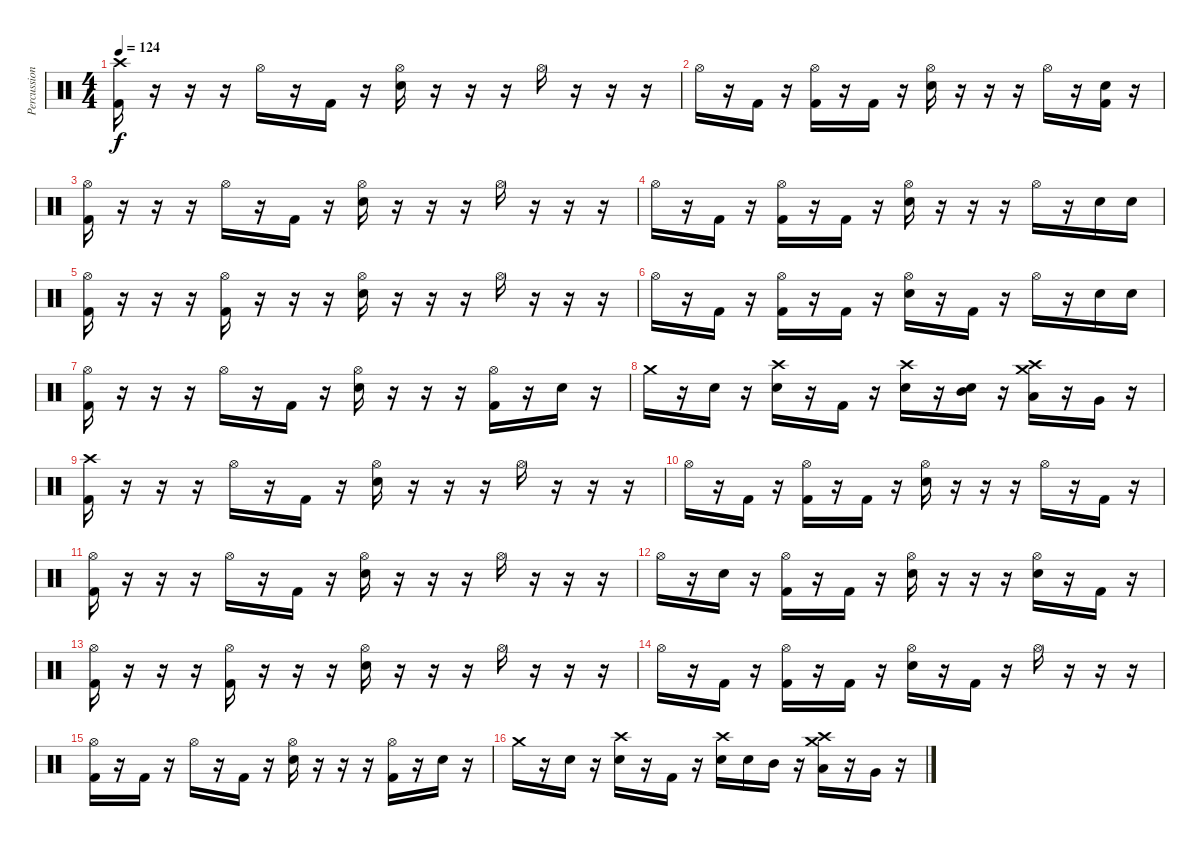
\track ("Percussion" "Percussion") {instrument percussion}
\staff {score}
\articulation defaults
\ts (4 4)
\tempo 124
\clef neutral
\ks c
("Kick (hit) 2" "Crash high (hit)").16{dy f} r.16 r.16 r.16 "Hi-Hat (open)".16 r.16 "Kick (hit) 2".16 r.16 ("Electric Snare (hit)" "Hi-Hat (open)").16 r.16 r.16 r.16 "Hi-Hat (open)".16 r.16 r.16 r.16 |
"Hi-Hat (open)".16 r.16 "Kick (hit) 2".16 r.16 ("Kick (hit) 2" "Hi-Hat (open)").16 r.16 "Kick (hit) 2".16 r.16 ("Electric Snare (hit)" "Hi-Hat (open)").16 r.16 r.16 r.16 "Hi-Hat (open)".16 r.16 ("Kick (hit) 2" "Electric Snare (hit)").16 r.16 |
("Kick (hit) 2" "Hi-Hat (open)").16 r.16 r.16 r.16 "Hi-Hat (open)".16 r.16 "Kick (hit) 2".16 r.16 ("Electric Snare (hit)" "Hi-Hat (open)").16 r.16 r.16 r.16 "Hi-Hat (open)".16 r.16 r.16 r.16 |
"Hi-Hat (open)".16 r.16 "Kick (hit) 2".16 r.16 ("Kick (hit) 2" "Hi-Hat (open)").16 r.16 "Kick (hit) 2".16 r.16 ("Electric Snare (hit)" "Hi-Hat (open)").16 r.16 r.16 r.16 "Hi-Hat (open)".16 r.16 "Electric Snare (hit)".16 "Electric Snare (hit)".16 |
("Kick (hit) 2" "Hi-Hat (open)").16 r.16 r.16 r.16 ("Kick (hit) 2" "Hi-Hat (open)").16 r.16 r.16 r.16 ("Electric Snare (hit)" "Hi-Hat (open)").16 r.16 r.16 r.16 "Hi-Hat (open)".16 r.16 r.16 r.16 |
"Hi-Hat (open)".16 r.16 "Kick (hit) 2".16 r.16 ("Kick (hit) 2" "Hi-Hat (open)").16 r.16 "Kick (hit) 2".16 r.16 ("Electric Snare (hit)" "Hi-Hat (open)").16 r.16 "Kick (hit) 2".16 r.16 "Hi-Hat (open)".16 r.16 "Electric Snare (hit)".16 "Electric Snare (hit)".16 |
("Kick (hit) 2" "Hi-Hat (open)").16 r.16 r.16 r.16 "Hi-Hat (open)".16 r.16 "Kick (hit) 2".16 r.16 ("Electric Snare (hit)" "Hi-Hat (open)").16 r.16 r.16 r.16 ("Kick (hit) 2" "Hi-Hat (open)").16 r.16 "Electric Snare (hit)".16 r.16 |
"Crash medium (hit)".16 r.16 "Electric Snare (hit)".16 r.16 ("Electric Snare (hit)" "Crash high (hit)").16 r.16 "Kick (hit) 2".16 r.16 ("Electric Snare (hit)" "Crash high (hit)").16 r.16 ("Electric Snare (hit)" "Mid Tom (hit)").16 r.16 ("Low Tom (hit)" "Crash medium (hit)" "Crash high (hit)").16 r.16 "Very Low Tom (hit)".16 r.16 |
("Kick (hit) 2" "Crash high (hit)").16 r.16 r.16 r.16 "Hi-Hat (open)".16 r.16 "Kick (hit) 2".16 r.16 ("Electric Snare (hit)" "Hi-Hat (open)").16 r.16 r.16 r.16 "Hi-Hat (open)".16 r.16 r.16 r.16 |
"Hi-Hat (open)".16 r.16 "Kick (hit) 2".16 r.16 ("Kick (hit) 2" "Hi-Hat (open)").16 r.16 "Kick (hit) 2".16 r.16 ("Electric Snare (hit)" "Hi-Hat (open)").16 r.16 r.16 r.16 "Hi-Hat (open)".16 r.16 "Kick (hit) 2".16 r.16 |
("Kick (hit) 2" "Hi-Hat (open)").16 r.16 r.16 r.16 "Hi-Hat (open)".16 r.16 "Kick (hit) 2".16 r.16 ("Electric Snare (hit)" "Hi-Hat (open)").16 r.16 r.16 r.16 "Hi-Hat (open)".16 r.16 r.16 r.16 |
"Hi-Hat (open)".16 r.16 "Electric Snare (hit)".16 r.16 ("Kick (hit) 2" "Hi-Hat (open)").16 r.16 "Kick (hit) 2".16 r.16 ("Electric Snare (hit)" "Hi-Hat (open)").16 r.16 r.16 r.16 ("Electric Snare (hit)" "Hi-Hat (open)").16 r.16 "Kick (hit) 2".16 r.16 |
("Kick (hit) 2" "Hi-Hat (open)").16 r.16 r.16 r.16 ("Kick (hit) 2" "Hi-Hat (open)").16 r.16 r.16 r.16 ("Electric Snare (hit)" "Hi-Hat (open)").16 r.16 r.16 r.16 "Hi-Hat (open)".16 r.16 r.16 r.16 |
"Hi-Hat (open)".16 r.16 "Kick (hit) 2".16 r.16 ("Kick (hit) 2" "Hi-Hat (open)").16 r.16 "Kick (hit) 2".16 r.16 ("Electric Snare (hit)" "Hi-Hat (open)").16 r.16 "Kick (hit) 2".16 r.16 "Hi-Hat (open)".16 r.16 r.16 r.16 |
("Kick (hit) 2" "Hi-Hat (open)").16 r.16 "Kick (hit) 2".16 r.16 "Hi-Hat (open)".16 r.16 "Kick (hit) 2".16 r.16 ("Electric Snare (hit)" "Hi-Hat (open)").16 r.16 r.16 r.16 ("Kick (hit) 2" "Hi-Hat (open)").16 r.16 "Electric Snare (hit)".16 r.16 |
"Crash medium (hit)".16 r.16 "Electric Snare (hit)".16 r.16 ("Electric Snare (hit)" "Crash high (hit)").16 r.16 "Kick (hit) 2".16 r.16 ("Electric Snare (hit)" "Crash high (hit)").16 "Electric Snare (hit)".16 "Mid Tom (hit)".16 r.16 ("Low Tom (hit)" "Crash medium (hit)" "Crash high (hit)").16 r.16 "Very Low Tom (hit)".16 r.16
